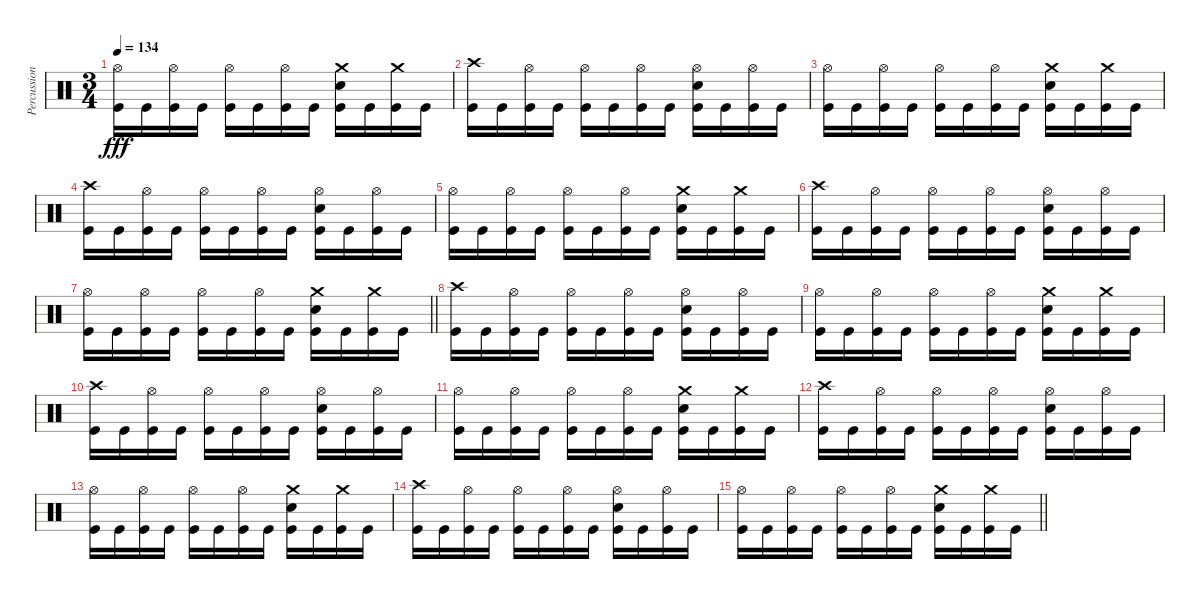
\track ("Percussion" "Percussion") {instrument percussion}
\staff {score}
\articulation defaults
\ts (3 4)
\tempo 134
\clef neutral
\ks c
("Hi-Hat (open)" "Kick (hit)").16{dy fff} "Kick (hit)".16 ("Hi-Hat (open)" "Kick (hit)").16 "Kick (hit)".16 ("Hi-Hat (open)" "Kick (hit)").16 "Kick (hit)".16 ("Hi-Hat (open)" "Kick (hit)").16 "Kick (hit)".16 ("Crash medium (hit)" "Snare (hit) 2" "Kick (hit)").16 "Kick (hit)".16 ("Crash medium (hit)" "Kick (hit)").16 "Kick (hit)".16 |
("Crash high (hit)" "Kick (hit)").16 "Kick (hit)".16 ("Hi-Hat (open)" "Kick (hit)").16 "Kick (hit)".16 ("Hi-Hat (open)" "Kick (hit)").16 "Kick (hit)".16 ("Hi-Hat (open)" "Kick (hit)").16 "Kick (hit)".16 ("Hi-Hat (open)" "Snare (hit) 2" "Kick (hit)").16 "Kick (hit)".16 ("Hi-Hat (open)" "Kick (hit)").16 "Kick (hit)".16 |
("Hi-Hat (open)" "Kick (hit)").16 "Kick (hit)".16 ("Hi-Hat (open)" "Kick (hit)").16 "Kick (hit)".16 ("Hi-Hat (open)" "Kick (hit)").16 "Kick (hit)".16 ("Hi-Hat (open)" "Kick (hit)").16 "Kick (hit)".16 ("Crash medium (hit)" "Snare (hit) 2" "Kick (hit)").16 "Kick (hit)".16 ("Crash medium (hit)" "Kick (hit)").16 "Kick (hit)".16 |
("Crash high (hit)" "Kick (hit)").16 "Kick (hit)".16 ("Hi-Hat (open)" "Kick (hit)").16 "Kick (hit)".16 ("Hi-Hat (open)" "Kick (hit)").16 "Kick (hit)".16 ("Hi-Hat (open)" "Kick (hit)").16 "Kick (hit)".16 ("Hi-Hat (open)" "Snare (hit) 2" "Kick (hit)").16 "Kick (hit)".16 ("Hi-Hat (open)" "Kick (hit)").16 "Kick (hit)".16 |
("Hi-Hat (open)" "Kick (hit)").16 "Kick (hit)".16 ("Hi-Hat (open)" "Kick (hit)").16 "Kick (hit)".16 ("Hi-Hat (open)" "Kick (hit)").16 "Kick (hit)".16 ("Hi-Hat (open)" "Kick (hit)").16 "Kick (hit)".16 ("Crash medium (hit)" "Snare (hit) 2" "Kick (hit)").16 "Kick (hit)".16 ("Crash medium (hit)" "Kick (hit)").16 "Kick (hit)".16 |
("Crash high (hit)" "Kick (hit)").16 "Kick (hit)".16 ("Hi-Hat (open)" "Kick (hit)").16 "Kick (hit)".16 ("Hi-Hat (open)" "Kick (hit)").16 "Kick (hit)".16 ("Hi-Hat (open)" "Kick (hit)").16 "Kick (hit)".16 ("Hi-Hat (open)" "Snare (hit) 2" "Kick (hit)").16 "Kick (hit)".16 ("Hi-Hat (open)" "Kick (hit)").16 "Kick (hit)".16 |
\barLineRight lightlight
("Hi-Hat (open)" "Kick (hit)").16 "Kick (hit)".16 ("Hi-Hat (open)" "Kick (hit)").16 "Kick (hit)".16 ("Hi-Hat (open)" "Kick (hit)").16 "Kick (hit)".16 ("Hi-Hat (open)" "Kick (hit)").16 "Kick (hit)".16 ("Crash medium (hit)" "Snare (hit) 2" "Kick (hit)").16 "Kick (hit)".16 ("Crash medium (hit)" "Kick (hit)").16 "Kick (hit)".16 |
\section ("" "")
("Crash high (hit)" "Kick (hit)").16 "Kick (hit)".16 ("Hi-Hat (open)" "Kick (hit)").16 "Kick (hit)".16 ("Hi-Hat (open)" "Kick (hit)").16 "Kick (hit)".16 ("Hi-Hat (open)" "Kick (hit)").16 "Kick (hit)".16 ("Hi-Hat (open)" "Snare (hit) 2" "Kick (hit)").16 "Kick (hit)".16 ("Hi-Hat (open)" "Kick (hit)").16 "Kick (hit)".16 |
("Hi-Hat (open)" "Kick (hit)").16 "Kick (hit)".16 ("Hi-Hat (open)" "Kick (hit)").16 "Kick (hit)".16 ("Hi-Hat (open)" "Kick (hit)").16 "Kick (hit)".16 ("Hi-Hat (open)" "Kick (hit)").16 "Kick (hit)".16 ("Crash medium (hit)" "Snare (hit) 2" "Kick (hit)").16 "Kick (hit)".16 ("Crash medium (hit)" "Kick (hit)").16 "Kick (hit)".16 |
("Crash high (hit)" "Kick (hit)").16 "Kick (hit)".16 ("Hi-Hat (open)" "Kick (hit)").16 "Kick (hit)".16 ("Hi-Hat (open)" "Kick (hit)").16 "Kick (hit)".16 ("Hi-Hat (open)" "Kick (hit)").16 "Kick (hit)".16 ("Hi-Hat (open)" "Snare (hit) 2" "Kick (hit)").16 "Kick (hit)".16 ("Hi-Hat (open)" "Kick (hit)").16 "Kick (hit)".16 |
("Hi-Hat (open)" "Kick (hit)").16 "Kick (hit)".16 ("Hi-Hat (open)" "Kick (hit)").16 "Kick (hit)".16 ("Hi-Hat (open)" "Kick (hit)").16 "Kick (hit)".16 ("Hi-Hat (open)" "Kick (hit)").16 "Kick (hit)".16 ("Crash medium (hit)" "Snare (hit) 2" "Kick (hit)").16 "Kick (hit)".16 ("Crash medium (hit)" "Kick (hit)").16 "Kick (hit)".16 |
("Crash high (hit)" "Kick (hit)").16 "Kick (hit)".16 ("Hi-Hat (open)" "Kick (hit)").16 "Kick (hit)".16 ("Hi-Hat (open)" "Kick (hit)").16 "Kick (hit)".16 ("Hi-Hat (open)" "Kick (hit)").16 "Kick (hit)".16 ("Hi-Hat (open)" "Snare (hit) 2" "Kick (hit)").16 "Kick (hit)".16 ("Hi-Hat (open)" "Kick (hit)").16 "Kick (hit)".16 |
("Hi-Hat (open)" "Kick (hit)").16 "Kick (hit)".16 ("Hi-Hat (open)" "Kick (hit)").16 "Kick (hit)".16 ("Hi-Hat (open)" "Kick (hit)").16 "Kick (hit)".16 ("Hi-Hat (open)" "Kick (hit)").16 "Kick (hit)".16 ("Crash medium (hit)" "Snare (hit) 2" "Kick (hit)").16 "Kick (hit)".16 ("Crash medium (hit)" "Kick (hit)").16 "Kick (hit)".16 |
("Crash high (hit)" "Kick (hit)").16 "Kick (hit)".16 ("Hi-Hat (open)" "Kick (hit)").16 "Kick (hit)".16 ("Hi-Hat (open)" "Kick (hit)").16 "Kick (hit)".16 ("Hi-Hat (open)" "Kick (hit)").16 "Kick (hit)".16 ("Hi-Hat (open)" "Snare (hit) 2" "Kick (hit)").16 "Kick (hit)".16 ("Hi-Hat (open)" "Kick (hit)").16 "Kick (hit)".16 |
\barLineRight lightlight
("Hi-Hat (open)" "Kick (hit)").16 "Kick (hit)".16 ("Hi-Hat (open)" "Kick (hit)").16 "Kick (hit)".16 ("Hi-Hat (open)" "Kick (hit)").16 "Kick (hit)".16 ("Hi-Hat (open)" "Kick (hit)").16 "Kick (hit)".16 ("Crash medium (hit)" "Snare (hit) 2" "Kick (hit)").16 "Kick (hit)".16 ("Crash medium (hit)" "Kick (hit)").16 "Kick (hit)".16
